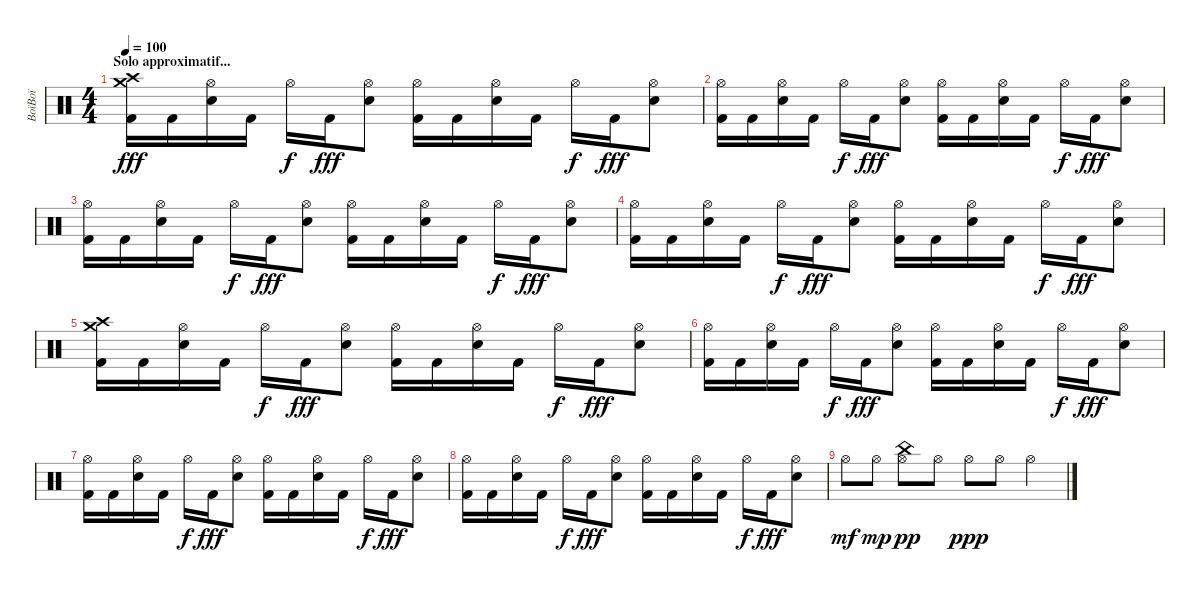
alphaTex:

\track ("BoïBoï" "BoïBoï") {instrument percussion}
\staff {score}
\articulation defaults
\ts (4 4)
\section ("" "Solo approximatif...")
\tempo 100
\clef neutral
\ks c
("Crash medium (hit)" "Crash high (hit)" "Kick (hit) 2").16{dy fff} "Kick (hit) 2".16 ("Hi-Hat (open)" "Electric Snare (hit)").16 "Kick (hit) 2".16 "Hi-Hat (open)".16{dy f} "Kick (hit) 2".16{dy fff} ("Hi-Hat (open)" "Electric Snare (hit)").8 ("Hi-Hat (open)" "Kick (hit) 2").16 "Kick (hit) 2".16 ("Hi-Hat (open)" "Electric Snare (hit)").16 "Kick (hit) 2".16 "Hi-Hat (open)".16{dy f} "Kick (hit) 2".16{dy fff} ("Hi-Hat (open)" "Electric Snare (hit)").8 |
("Hi-Hat (open)" "Kick (hit) 2").16 "Kick (hit) 2".16 ("Hi-Hat (open)" "Electric Snare (hit)").16 "Kick (hit) 2".16 "Hi-Hat (open)".16{dy f} "Kick (hit) 2".16{dy fff} ("Hi-Hat (open)" "Electric Snare (hit)").8 ("Hi-Hat (open)" "Kick (hit) 2").16 "Kick (hit) 2".16 ("Hi-Hat (open)" "Electric Snare (hit)").16 "Kick (hit) 2".16 "Hi-Hat (open)".16{dy f} "Kick (hit) 2".16{dy fff} ("Hi-Hat (open)" "Electric Snare (hit)").8 |
("Hi-Hat (open)" "Kick (hit) 2").16 "Kick (hit) 2".16 ("Hi-Hat (open)" "Electric Snare (hit)").16 "Kick (hit) 2".16 "Hi-Hat (open)".16{dy f} "Kick (hit) 2".16{dy fff} ("Hi-Hat (open)" "Electric Snare (hit)").8 ("Hi-Hat (open)" "Kick (hit) 2").16 "Kick (hit) 2".16 ("Hi-Hat (open)" "Electric Snare (hit)").16 "Kick (hit) 2".16 "Hi-Hat (open)".16{dy f} "Kick (hit) 2".16{dy fff} ("Hi-Hat (open)" "Electric Snare (hit)").8 |
("Hi-Hat (open)" "Kick (hit) 2").16 "Kick (hit) 2".16 ("Hi-Hat (open)" "Electric Snare (hit)").16 "Kick (hit) 2".16 "Hi-Hat (open)".16{dy f} "Kick (hit) 2".16{dy fff} ("Hi-Hat (open)" "Electric Snare (hit)").8 ("Hi-Hat (open)" "Kick (hit) 2").16 "Kick (hit) 2".16 ("Hi-Hat (open)" "Electric Snare (hit)").16 "Kick (hit) 2".16 "Hi-Hat (open)".16{dy f} "Kick (hit) 2".16{dy fff} ("Hi-Hat (open)" "Electric Snare (hit)").8 |
("Crash medium (hit)" "Crash high (hit)" "Kick (hit) 2").16 "Kick (hit) 2".16 ("Hi-Hat (open)" "Electric Snare (hit)").16 "Kick (hit) 2".16 "Hi-Hat (open)".16{dy f} "Kick (hit) 2".16{dy fff} ("Hi-Hat (open)" "Electric Snare (hit)").8 ("Hi-Hat (open)" "Kick (hit) 2").16 "Kick (hit) 2".16 ("Hi-Hat (open)" "Electric Snare (hit)").16 "Kick (hit) 2".16 "Hi-Hat (open)".16{dy f} "Kick (hit) 2".16{dy fff} ("Hi-Hat (open)" "Electric Snare (hit)").8 |
("Hi-Hat (open)" "Kick (hit) 2").16 "Kick (hit) 2".16 ("Hi-Hat (open)" "Electric Snare (hit)").16 "Kick (hit) 2".16 "Hi-Hat (open)".16{dy f} "Kick (hit) 2".16{dy fff} ("Hi-Hat (open)" "Electric Snare (hit)").8 ("Hi-Hat (open)" "Kick (hit) 2").16 "Kick (hit) 2".16 ("Hi-Hat (open)" "Electric Snare (hit)").16 "Kick (hit) 2".16 "Hi-Hat (open)".16{dy f} "Kick (hit) 2".16{dy fff} ("Hi-Hat (open)" "Electric Snare (hit)").8 |
("Hi-Hat (open)" "Kick (hit) 2").16 "Kick (hit) 2".16 ("Hi-Hat (open)" "Electric Snare (hit)").16 "Kick (hit) 2".16 "Hi-Hat (open)".16{dy f} "Kick (hit) 2".16{dy fff} ("Hi-Hat (open)" "Electric Snare (hit)").8 ("Hi-Hat (open)" "Kick (hit) 2").16 "Kick (hit) 2".16 ("Hi-Hat (open)" "Electric Snare (hit)").16 "Kick (hit) 2".16 "Hi-Hat (open)".16{dy f} "Kick (hit) 2".16{dy fff} ("Hi-Hat (open)" "Electric Snare (hit)").8 |
("Hi-Hat (open)" "Kick (hit) 2").16 "Kick (hit) 2".16 ("Hi-Hat (open)" "Electric Snare (hit)").16 "Kick (hit) 2".16 "Hi-Hat (open)".16{dy f} "Kick (hit) 2".16{dy fff} ("Hi-Hat (open)" "Electric Snare (hit)").8 ("Hi-Hat (open)" "Kick (hit) 2").16 "Kick (hit) 2".16 ("Hi-Hat (open)" "Electric Snare (hit)").16 "Kick (hit) 2".16 "Hi-Hat (open)".16{dy f} "Kick (hit) 2".16{dy fff} ("Hi-Hat (open)" "Electric Snare (hit)").8 |
"Hi-Hat (open)".8{dy mf} "Hi-Hat (open)".8{dy mp} ("Hi-Hat (open)" "China (hit)").8{dy pp} "Hi-Hat (open)".8 "Hi-Hat (open)".8{dy ppp} "Hi-Hat (open)".8 "Hi-Hat (open)".4
